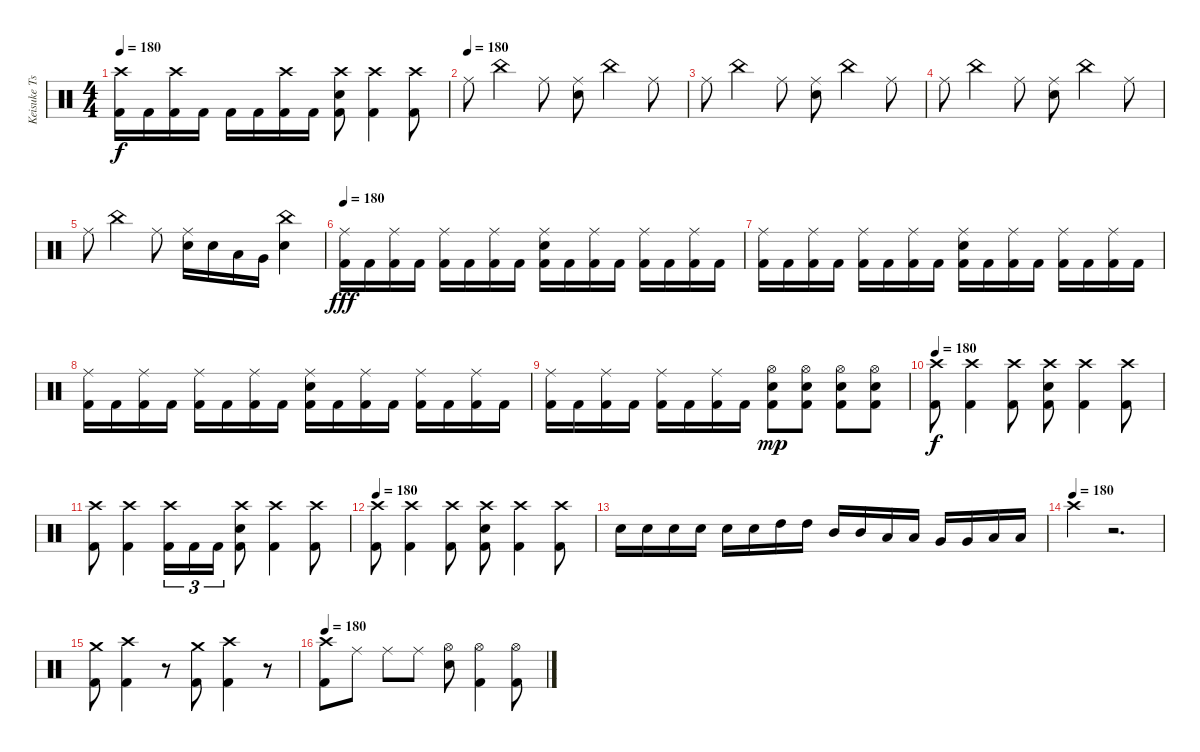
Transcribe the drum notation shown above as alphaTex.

\track ("Keisuke Tsuboi" "Keisuke Ts") {instrument percussion}
\staff {score}
\articulation defaults
\ts (4 4)
\tempo 180
\clef neutral
\ks c
("Crash high (hit)" "Kick (hit) 2").16{dy f} "Kick (hit) 2".16 ("Crash high (hit)" "Kick (hit) 2").16 "Kick (hit) 2".16 "Kick (hit) 2".16 "Kick (hit) 2".16 ("Crash high (hit)" "Kick (hit) 2").16 "Kick (hit) 2".16 ("Crash high (hit)" "Electric Snare (hit)" "Kick (hit) 2").8 ("Crash high (hit)" "Kick (hit) 2").4 ("Crash high (hit)" "Kick (hit) 2").8 |
\tempo (180)
"Ride (middle)".8 "China (hit)".4 "Ride (middle)".8 ("Ride (middle)" "Electric Snare (hit)").8 "China (hit)".4 "Ride (middle)".8 |
"Ride (middle)".8 "China (hit)".4 "Ride (middle)".8 ("Ride (middle)" "Electric Snare (hit)").8 "China (hit)".4 "Ride (middle)".8 |
"Ride (middle)".8 "China (hit)".4 "Ride (middle)".8 ("Ride (middle)" "Electric Snare (hit)").8 "China (hit)".4 "Ride (middle)".8 |
"Ride (middle)".8 "China (hit)".4 "Ride (middle)".8 ("Ride (middle)" "Electric Snare (hit)").16 "Electric Snare (hit)".16 "Low Tom (hit)".16 "Very Low Tom (hit)".16 ("China (hit)" "Electric Snare (hit)").4 |
\tempo 180
("Ride (middle)" "Kick (hit) 2").16{dy fff} "Kick (hit) 2".16 ("Ride (middle)" "Kick (hit) 2").16 "Kick (hit) 2".16 ("Ride (middle)" "Kick (hit) 2").16 "Kick (hit) 2".16 ("Ride (middle)" "Kick (hit) 2").16 "Kick (hit) 2".16 ("Ride (middle)" "Electric Snare (hit)" "Kick (hit) 2").16 "Kick (hit) 2".16 ("Ride (middle)" "Kick (hit) 2").16 "Kick (hit) 2".16 ("Ride (middle)" "Kick (hit) 2").16 "Kick (hit) 2".16 ("Ride (middle)" "Kick (hit) 2").16 "Kick (hit) 2".16 |
("Ride (middle)" "Kick (hit) 2").16 "Kick (hit) 2".16 ("Ride (middle)" "Kick (hit) 2").16 "Kick (hit) 2".16 ("Ride (middle)" "Kick (hit) 2").16 "Kick (hit) 2".16 ("Ride (middle)" "Kick (hit) 2").16 "Kick (hit) 2".16 ("Ride (middle)" "Electric Snare (hit)" "Kick (hit) 2").16 "Kick (hit) 2".16 ("Ride (middle)" "Kick (hit) 2").16 "Kick (hit) 2".16 ("Ride (middle)" "Kick (hit) 2").16 "Kick (hit) 2".16 ("Ride (middle)" "Kick (hit) 2").16 "Kick (hit) 2".16 |
("Ride (middle)" "Kick (hit) 2").16 "Kick (hit) 2".16 ("Ride (middle)" "Kick (hit) 2").16 "Kick (hit) 2".16 ("Ride (middle)" "Kick (hit) 2").16 "Kick (hit) 2".16 ("Ride (middle)" "Kick (hit) 2").16 "Kick (hit) 2".16 ("Ride (middle)" "Electric Snare (hit)" "Kick (hit) 2").16 "Kick (hit) 2".16 ("Ride (middle)" "Kick (hit) 2").16 "Kick (hit) 2".16 ("Ride (middle)" "Kick (hit) 2").16 "Kick (hit) 2".16 ("Ride (middle)" "Kick (hit) 2").16 "Kick (hit) 2".16 |
("Ride (middle)" "Kick (hit) 2").16 "Kick (hit) 2".16 ("Ride (middle)" "Kick (hit) 2").16 "Kick (hit) 2".16 ("Ride (middle)" "Kick (hit) 2").16 "Kick (hit) 2".16 ("Ride (middle)" "Kick (hit) 2").16 "Kick (hit) 2".16 ("Hi-Hat (open)" "Electric Snare (hit)" "Kick (hit) 2").8{dy mp} ("Hi-Hat (open)" "Electric Snare (hit)" "Kick (hit) 2").8 ("Hi-Hat (open)" "Electric Snare (hit)" "Kick (hit) 2").8 ("Hi-Hat (open)" "Electric Snare (hit)" "Kick (hit) 2").8 |
\tempo 180
("Crash high (hit)" "Kick (hit) 2").8{dy f} ("Crash high (hit)" "Kick (hit) 2").4 ("Crash high (hit)" "Kick (hit) 2").8 ("Crash high (hit)" "Electric Snare (hit)" "Kick (hit) 2").8 ("Crash high (hit)" "Kick (hit) 2").4 ("Crash high (hit)" "Kick (hit) 2").8 |
("Crash high (hit)" "Kick (hit) 2").8 ("Crash high (hit)" "Kick (hit) 2").4 ("Crash high (hit)" "Kick (hit) 2").16{tu (3 2)} "Kick (hit) 2".16{tu (3 2)} "Kick (hit) 2".16{tu (3 2)} ("Crash high (hit)" "Electric Snare (hit)" "Kick (hit) 2").8 ("Crash high (hit)" "Kick (hit) 2").4 ("Crash high (hit)" "Kick (hit) 2").8 |
\tempo 180
("Crash high (hit)" "Kick (hit) 2").8 ("Crash high (hit)" "Kick (hit) 2").4 ("Crash high (hit)" "Kick (hit) 2").8 ("Crash high (hit)" "Electric Snare (hit)" "Kick (hit) 2").8 ("Crash high (hit)" "Kick (hit) 2").4 ("Crash high (hit)" "Kick (hit) 2").8 |
"Electric Snare (hit)".16 "Electric Snare (hit)".16 "Electric Snare (hit)".16 "Electric Snare (hit)".16 "Electric Snare (hit)".16 "Electric Snare (hit)".16 "High Tom (hit)".16 "High Tom (hit)".16 "Mid Tom (hit)".16 "Mid Tom (hit)".16 "Low Tom (hit)".16 "Low Tom (hit)".16 "Very Low Tom (hit)".16 "Very Low Tom (hit)".16 "Low Floor Tom (hit)".16 "Low Floor Tom (hit)".16 |
\tempo (180)
"Crash high (hit)".4 r.2{d volume 0} |
("Crash medium (hit)" "Kick (hit) 2").8{volume 15} ("Crash high (hit)" "Kick (hit) 2").4 r.8{volume 0} ("Crash medium (hit)" "Kick (hit) 2").8{volume 15} ("Crash high (hit)" "Kick (hit) 2").4 r.8{volume 0} |
\tempo 180
("Crash high (hit)" "Kick (hit) 2").8{volume 15} "Ride (middle)".8 "Ride (middle)".8 "Ride (middle)".8 ("Hi-Hat (open)" "Electric Snare (hit)").8 ("Hi-Hat (open)" "Kick (hit) 2").4 ("Hi-Hat (open)" "Kick (hit) 2").8
